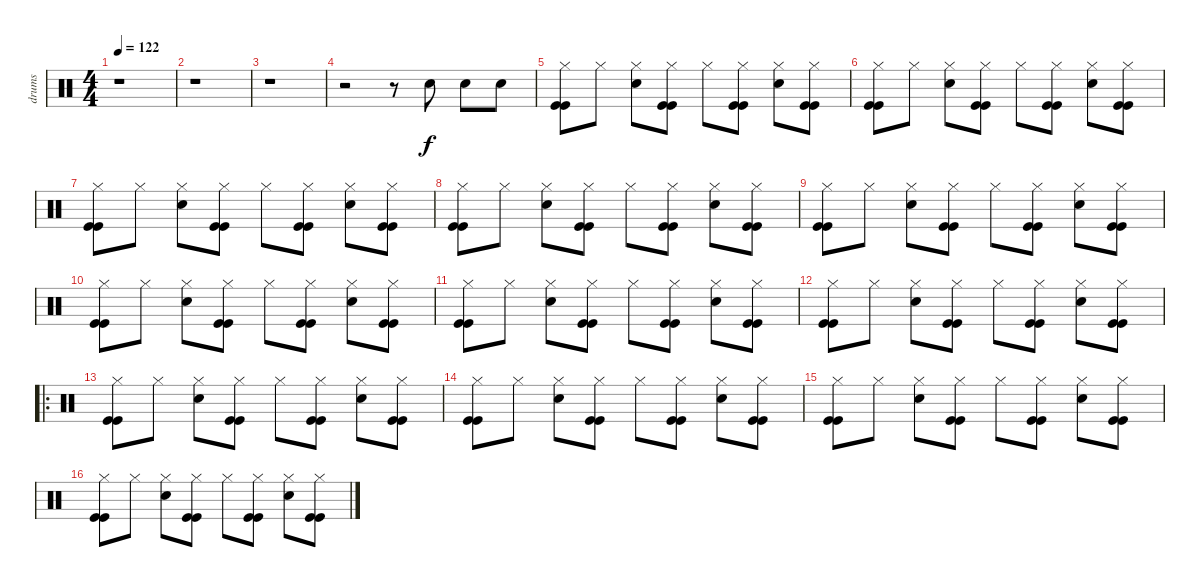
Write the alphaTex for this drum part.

\track ("drums" "drums") {instrument percussion}
\staff {score}
\articulation defaults
\ts (4 4)
\tempo 122
\clef neutral
\ks c
r.1{dy f} |
r.1 |
r.1 |
r.2 r.8 "Electric Snare (hit)".8 "Electric Snare (hit)".8 "Electric Snare (hit)".8 |
("Hi-Hat (closed)" "Kick (hit)" "Kick (hit)").8 "Hi-Hat (closed)".8 ("Hi-Hat (closed)" "Electric Snare (hit)").8 ("Hi-Hat (closed)" "Kick (hit)" "Kick (hit)").8 "Hi-Hat (closed)".8 ("Hi-Hat (closed)" "Kick (hit)" "Kick (hit)").8 ("Hi-Hat (closed)" "Electric Snare (hit)").8 ("Hi-Hat (closed)" "Kick (hit)" "Kick (hit)").8 |
("Hi-Hat (closed)" "Kick (hit)" "Kick (hit)").8 "Hi-Hat (closed)".8 ("Hi-Hat (closed)" "Electric Snare (hit)").8 ("Hi-Hat (closed)" "Kick (hit)" "Kick (hit)").8 "Hi-Hat (closed)".8 ("Hi-Hat (closed)" "Kick (hit)" "Kick (hit)").8 ("Hi-Hat (closed)" "Electric Snare (hit)").8 ("Hi-Hat (closed)" "Kick (hit)" "Kick (hit)").8 |
("Hi-Hat (closed)" "Kick (hit)" "Kick (hit)").8 "Hi-Hat (closed)".8 ("Hi-Hat (closed)" "Electric Snare (hit)").8 ("Hi-Hat (closed)" "Kick (hit)" "Kick (hit)").8 "Hi-Hat (closed)".8 ("Hi-Hat (closed)" "Kick (hit)" "Kick (hit)").8 ("Hi-Hat (closed)" "Electric Snare (hit)").8 ("Hi-Hat (closed)" "Kick (hit)" "Kick (hit)").8 |
("Hi-Hat (closed)" "Kick (hit)" "Kick (hit)").8 "Hi-Hat (closed)".8 ("Hi-Hat (closed)" "Electric Snare (hit)").8 ("Hi-Hat (closed)" "Kick (hit)" "Kick (hit)").8 "Hi-Hat (closed)".8 ("Hi-Hat (closed)" "Kick (hit)" "Kick (hit)").8 ("Hi-Hat (closed)" "Electric Snare (hit)").8 ("Hi-Hat (closed)" "Kick (hit)" "Kick (hit)").8 |
("Hi-Hat (closed)" "Kick (hit)" "Kick (hit)").8 "Hi-Hat (closed)".8 ("Hi-Hat (closed)" "Electric Snare (hit)").8 ("Hi-Hat (closed)" "Kick (hit)" "Kick (hit)").8 "Hi-Hat (closed)".8 ("Hi-Hat (closed)" "Kick (hit)" "Kick (hit)").8 ("Hi-Hat (closed)" "Electric Snare (hit)").8 ("Hi-Hat (closed)" "Kick (hit)" "Kick (hit)").8 |
("Hi-Hat (closed)" "Kick (hit)" "Kick (hit)").8 "Hi-Hat (closed)".8 ("Hi-Hat (closed)" "Electric Snare (hit)").8 ("Hi-Hat (closed)" "Kick (hit)" "Kick (hit)").8 "Hi-Hat (closed)".8 ("Hi-Hat (closed)" "Kick (hit)" "Kick (hit)").8 ("Hi-Hat (closed)" "Electric Snare (hit)").8 ("Hi-Hat (closed)" "Kick (hit)" "Kick (hit)").8 |
("Hi-Hat (closed)" "Kick (hit)" "Kick (hit)").8 "Hi-Hat (closed)".8 ("Hi-Hat (closed)" "Electric Snare (hit)").8 ("Hi-Hat (closed)" "Kick (hit)" "Kick (hit)").8 "Hi-Hat (closed)".8 ("Hi-Hat (closed)" "Kick (hit)" "Kick (hit)").8 ("Hi-Hat (closed)" "Electric Snare (hit)").8 ("Hi-Hat (closed)" "Kick (hit)" "Kick (hit)").8 |
("Hi-Hat (closed)" "Kick (hit)" "Kick (hit)").8 "Hi-Hat (closed)".8 ("Hi-Hat (closed)" "Electric Snare (hit)").8 ("Hi-Hat (closed)" "Kick (hit)" "Kick (hit)").8 "Hi-Hat (closed)".8 ("Hi-Hat (closed)" "Kick (hit)" "Kick (hit)").8 ("Hi-Hat (closed)" "Electric Snare (hit)").8 ("Hi-Hat (closed)" "Kick (hit)" "Kick (hit)").8 |
\ro
("Hi-Hat (closed)" "Kick (hit)" "Kick (hit)").8 "Hi-Hat (closed)".8 ("Hi-Hat (closed)" "Electric Snare (hit)").8 ("Hi-Hat (closed)" "Kick (hit)" "Kick (hit)").8 "Hi-Hat (closed)".8 ("Hi-Hat (closed)" "Kick (hit)" "Kick (hit)").8 ("Hi-Hat (closed)" "Electric Snare (hit)").8 ("Hi-Hat (closed)" "Kick (hit)" "Kick (hit)").8 |
("Hi-Hat (closed)" "Kick (hit)" "Kick (hit)").8 "Hi-Hat (closed)".8 ("Hi-Hat (closed)" "Electric Snare (hit)").8 ("Hi-Hat (closed)" "Kick (hit)" "Kick (hit)").8 "Hi-Hat (closed)".8 ("Hi-Hat (closed)" "Kick (hit)" "Kick (hit)").8 ("Hi-Hat (closed)" "Electric Snare (hit)").8 ("Hi-Hat (closed)" "Kick (hit)" "Kick (hit)").8 |
("Hi-Hat (closed)" "Kick (hit)" "Kick (hit)").8 "Hi-Hat (closed)".8 ("Hi-Hat (closed)" "Electric Snare (hit)").8 ("Hi-Hat (closed)" "Kick (hit)" "Kick (hit)").8 "Hi-Hat (closed)".8 ("Hi-Hat (closed)" "Kick (hit)" "Kick (hit)").8 ("Hi-Hat (closed)" "Electric Snare (hit)").8 ("Hi-Hat (closed)" "Kick (hit)" "Kick (hit)").8 |
("Hi-Hat (closed)" "Kick (hit)" "Kick (hit)").8 "Hi-Hat (closed)".8 ("Hi-Hat (closed)" "Electric Snare (hit)").8 ("Hi-Hat (closed)" "Kick (hit)" "Kick (hit)").8 "Hi-Hat (closed)".8 ("Hi-Hat (closed)" "Kick (hit)" "Kick (hit)").8 ("Hi-Hat (closed)" "Electric Snare (hit)").8 ("Hi-Hat (closed)" "Kick (hit)" "Kick (hit)").8
